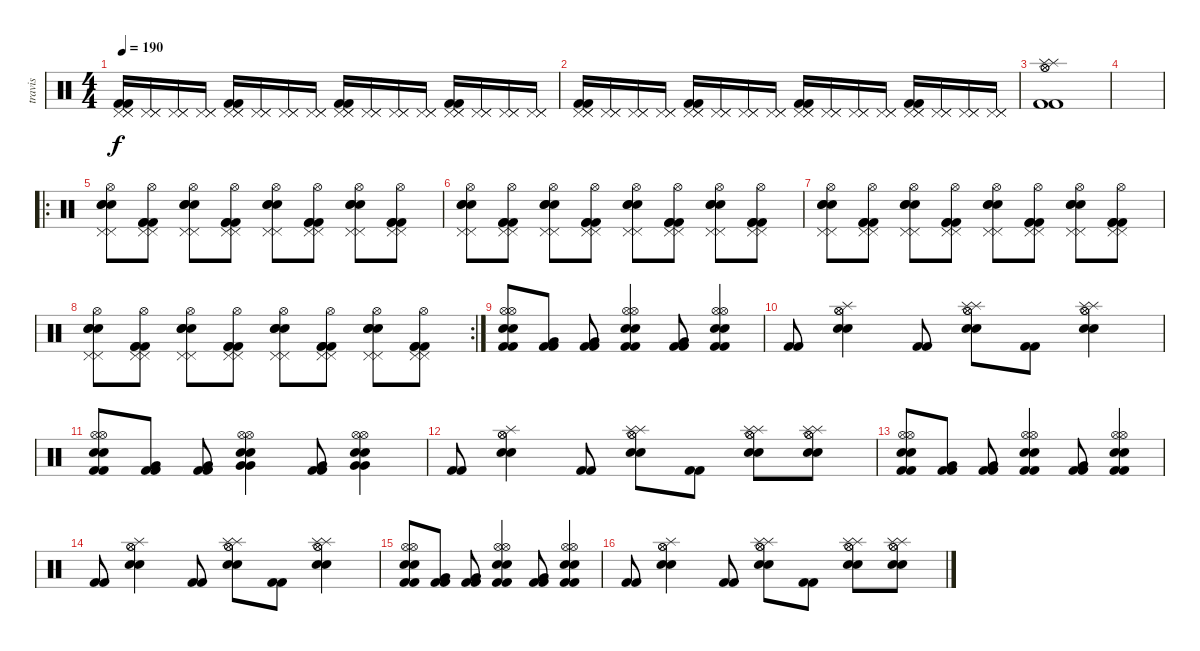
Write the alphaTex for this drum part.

\track ("travis" "travis") {instrument percussion}
\staff {score}
\articulation defaults
\ts (4 4)
\tempo 190
\clef neutral
\ks c
("Pedal Hi-Hat (hit)" "Pedal Hi-Hat (hit)" "Pedal Hi-Hat (hit)" "Kick (hit) 2" "Kick (hit) 2").16{dy f} ("Pedal Hi-Hat (hit)" "Pedal Hi-Hat (hit)" "Pedal Hi-Hat (hit)").16 ("Pedal Hi-Hat (hit)" "Pedal Hi-Hat (hit)" "Pedal Hi-Hat (hit)").16 ("Pedal Hi-Hat (hit)" "Pedal Hi-Hat (hit)" "Pedal Hi-Hat (hit)").16 ("Pedal Hi-Hat (hit)" "Pedal Hi-Hat (hit)" "Pedal Hi-Hat (hit)" "Kick (hit) 2" "Kick (hit) 2").16 ("Pedal Hi-Hat (hit)" "Pedal Hi-Hat (hit)" "Pedal Hi-Hat (hit)").16 ("Pedal Hi-Hat (hit)" "Pedal Hi-Hat (hit)" "Pedal Hi-Hat (hit)").16 ("Pedal Hi-Hat (hit)" "Pedal Hi-Hat (hit)" "Pedal Hi-Hat (hit)").16 ("Pedal Hi-Hat (hit)" "Pedal Hi-Hat (hit)" "Pedal Hi-Hat (hit)" "Kick (hit) 2" "Kick (hit) 2").16 ("Pedal Hi-Hat (hit)" "Pedal Hi-Hat (hit)" "Pedal Hi-Hat (hit)").16 ("Pedal Hi-Hat (hit)" "Pedal Hi-Hat (hit)" "Pedal Hi-Hat (hit)").16 ("Pedal Hi-Hat (hit)" "Pedal Hi-Hat (hit)" "Pedal Hi-Hat (hit)").16 ("Pedal Hi-Hat (hit)" "Pedal Hi-Hat (hit)" "Pedal Hi-Hat (hit)" "Kick (hit) 2" "Kick (hit) 2").16 ("Pedal Hi-Hat (hit)" "Pedal Hi-Hat (hit)" "Pedal Hi-Hat (hit)").16 ("Pedal Hi-Hat (hit)" "Pedal Hi-Hat (hit)" "Pedal Hi-Hat (hit)").16 ("Pedal Hi-Hat (hit)" "Pedal Hi-Hat (hit)" "Pedal Hi-Hat (hit)").16 |
("Pedal Hi-Hat (hit)" "Pedal Hi-Hat (hit)" "Pedal Hi-Hat (hit)" "Kick (hit) 2" "Kick (hit) 2").16 ("Pedal Hi-Hat (hit)" "Pedal Hi-Hat (hit)" "Pedal Hi-Hat (hit)").16 ("Pedal Hi-Hat (hit)" "Pedal Hi-Hat (hit)" "Pedal Hi-Hat (hit)").16 ("Pedal Hi-Hat (hit)" "Pedal Hi-Hat (hit)" "Pedal Hi-Hat (hit)").16 ("Pedal Hi-Hat (hit)" "Pedal Hi-Hat (hit)" "Pedal Hi-Hat (hit)" "Kick (hit) 2" "Kick (hit) 2").16 ("Pedal Hi-Hat (hit)" "Pedal Hi-Hat (hit)" "Pedal Hi-Hat (hit)").16 ("Pedal Hi-Hat (hit)" "Pedal Hi-Hat (hit)" "Pedal Hi-Hat (hit)").16 ("Pedal Hi-Hat (hit)" "Pedal Hi-Hat (hit)" "Pedal Hi-Hat (hit)").16 ("Pedal Hi-Hat (hit)" "Pedal Hi-Hat (hit)" "Pedal Hi-Hat (hit)" "Kick (hit) 2" "Kick (hit) 2").16 ("Pedal Hi-Hat (hit)" "Pedal Hi-Hat (hit)" "Pedal Hi-Hat (hit)").16 ("Pedal Hi-Hat (hit)" "Pedal Hi-Hat (hit)" "Pedal Hi-Hat (hit)").16 ("Pedal Hi-Hat (hit)" "Pedal Hi-Hat (hit)" "Pedal Hi-Hat (hit)").16 ("Pedal Hi-Hat (hit)" "Pedal Hi-Hat (hit)" "Pedal Hi-Hat (hit)" "Kick (hit) 2" "Kick (hit) 2").16 ("Pedal Hi-Hat (hit)" "Pedal Hi-Hat (hit)" "Pedal Hi-Hat (hit)").16 ("Pedal Hi-Hat (hit)" "Pedal Hi-Hat (hit)" "Pedal Hi-Hat (hit)").16 ("Pedal Hi-Hat (hit)" "Pedal Hi-Hat (hit)" "Pedal Hi-Hat (hit)").16 |
("Hi-Hat (open)" "Hi-Hat (open)" "Kick (hit) 2" "Kick (hit) 2" "Splash (hit)" "Splash (hit)").1 |
|
\ro
("Snare (hit) 2" "Snare (hit) 2" "Snare (hit) 2" "Pedal Hi-Hat (hit)" "Hi-Hat (open)" "Pedal Hi-Hat (hit)").8 ("Kick (hit) 2" "Kick (hit) 2" "Kick (hit) 2" "Pedal Hi-Hat (hit)" "Hi-Hat (open)" "Pedal Hi-Hat (hit)").8 ("Snare (hit) 2" "Snare (hit) 2" "Snare (hit) 2" "Pedal Hi-Hat (hit)" "Hi-Hat (open)" "Pedal Hi-Hat (hit)").8 ("Kick (hit) 2" "Kick (hit) 2" "Kick (hit) 2" "Pedal Hi-Hat (hit)" "Hi-Hat (open)" "Pedal Hi-Hat (hit)").8 ("Snare (hit) 2" "Snare (hit) 2" "Snare (hit) 2" "Pedal Hi-Hat (hit)" "Hi-Hat (open)" "Pedal Hi-Hat (hit)").8 ("Kick (hit) 2" "Kick (hit) 2" "Kick (hit) 2" "Pedal Hi-Hat (hit)" "Hi-Hat (open)" "Pedal Hi-Hat (hit)").8 ("Snare (hit) 2" "Snare (hit) 2" "Snare (hit) 2" "Pedal Hi-Hat (hit)" "Hi-Hat (open)" "Pedal Hi-Hat (hit)").8 ("Kick (hit) 2" "Kick (hit) 2" "Kick (hit) 2" "Pedal Hi-Hat (hit)" "Hi-Hat (open)" "Pedal Hi-Hat (hit)").8 |
("Snare (hit) 2" "Snare (hit) 2" "Snare (hit) 2" "Pedal Hi-Hat (hit)" "Hi-Hat (open)" "Pedal Hi-Hat (hit)").8 ("Kick (hit) 2" "Kick (hit) 2" "Kick (hit) 2" "Pedal Hi-Hat (hit)" "Hi-Hat (open)" "Pedal Hi-Hat (hit)").8 ("Snare (hit) 2" "Snare (hit) 2" "Snare (hit) 2" "Pedal Hi-Hat (hit)" "Hi-Hat (open)" "Pedal Hi-Hat (hit)").8 ("Kick (hit) 2" "Kick (hit) 2" "Kick (hit) 2" "Pedal Hi-Hat (hit)" "Hi-Hat (open)" "Pedal Hi-Hat (hit)").8 ("Snare (hit) 2" "Snare (hit) 2" "Snare (hit) 2" "Pedal Hi-Hat (hit)" "Hi-Hat (open)" "Pedal Hi-Hat (hit)").8 ("Kick (hit) 2" "Kick (hit) 2" "Kick (hit) 2" "Pedal Hi-Hat (hit)" "Hi-Hat (open)" "Pedal Hi-Hat (hit)").8 ("Snare (hit) 2" "Snare (hit) 2" "Snare (hit) 2" "Pedal Hi-Hat (hit)" "Hi-Hat (open)" "Pedal Hi-Hat (hit)").8 ("Kick (hit) 2" "Kick (hit) 2" "Kick (hit) 2" "Pedal Hi-Hat (hit)" "Hi-Hat (open)" "Pedal Hi-Hat (hit)").8 |
("Snare (hit) 2" "Snare (hit) 2" "Snare (hit) 2" "Pedal Hi-Hat (hit)" "Hi-Hat (open)" "Pedal Hi-Hat (hit)").8 ("Kick (hit) 2" "Kick (hit) 2" "Kick (hit) 2" "Pedal Hi-Hat (hit)" "Hi-Hat (open)" "Pedal Hi-Hat (hit)").8 ("Snare (hit) 2" "Snare (hit) 2" "Snare (hit) 2" "Pedal Hi-Hat (hit)" "Hi-Hat (open)" "Pedal Hi-Hat (hit)").8 ("Kick (hit) 2" "Kick (hit) 2" "Kick (hit) 2" "Pedal Hi-Hat (hit)" "Hi-Hat (open)" "Pedal Hi-Hat (hit)").8 ("Snare (hit) 2" "Snare (hit) 2" "Snare (hit) 2" "Pedal Hi-Hat (hit)" "Hi-Hat (open)" "Pedal Hi-Hat (hit)").8 ("Kick (hit) 2" "Kick (hit) 2" "Kick (hit) 2" "Pedal Hi-Hat (hit)" "Hi-Hat (open)" "Pedal Hi-Hat (hit)").8 ("Snare (hit) 2" "Snare (hit) 2" "Snare (hit) 2" "Pedal Hi-Hat (hit)" "Hi-Hat (open)" "Pedal Hi-Hat (hit)").8 ("Kick (hit) 2" "Kick (hit) 2" "Kick (hit) 2" "Pedal Hi-Hat (hit)" "Hi-Hat (open)" "Pedal Hi-Hat (hit)").8 |
\rc 2
("Snare (hit) 2" "Snare (hit) 2" "Snare (hit) 2" "Pedal Hi-Hat (hit)" "Hi-Hat (open)" "Pedal Hi-Hat (hit)").8 ("Kick (hit) 2" "Kick (hit) 2" "Kick (hit) 2" "Pedal Hi-Hat (hit)" "Hi-Hat (open)" "Pedal Hi-Hat (hit)").8 ("Snare (hit) 2" "Snare (hit) 2" "Snare (hit) 2" "Pedal Hi-Hat (hit)" "Hi-Hat (open)" "Pedal Hi-Hat (hit)").8 ("Kick (hit) 2" "Kick (hit) 2" "Kick (hit) 2" "Pedal Hi-Hat (hit)" "Hi-Hat (open)" "Pedal Hi-Hat (hit)").8 ("Snare (hit) 2" "Snare (hit) 2" "Snare (hit) 2" "Pedal Hi-Hat (hit)" "Hi-Hat (open)" "Pedal Hi-Hat (hit)").8 ("Kick (hit) 2" "Kick (hit) 2" "Kick (hit) 2" "Pedal Hi-Hat (hit)" "Hi-Hat (open)" "Pedal Hi-Hat (hit)").8 ("Snare (hit) 2" "Snare (hit) 2" "Snare (hit) 2" "Pedal Hi-Hat (hit)" "Hi-Hat (open)" "Pedal Hi-Hat (hit)").8 ("Kick (hit) 2" "Kick (hit) 2" "Kick (hit) 2" "Pedal Hi-Hat (hit)" "Hi-Hat (open)" "Pedal Hi-Hat (hit)").8 |
("Kick (hit) 2" "Kick (hit) 2" "Snare (hit) 2" "Snare (hit) 2" "Hi-Hat (open)" "Hi-Hat (open)").8 ("Kick (hit) 2" "Kick (hit) 2" "Very Low Tom (hit)").8 ("Kick (hit) 2" "Kick (hit) 2" "Very Low Tom (hit)").8 ("Kick (hit) 2" "Kick (hit) 2" "Snare (hit) 2" "Snare (hit) 2" "Hi-Hat (open)" "Hi-Hat (open)").4 ("Kick (hit) 2" "Kick (hit) 2" "Very Low Tom (hit)").8 ("Kick (hit) 2" "Kick (hit) 2" "Snare (hit) 2" "Snare (hit) 2" "Hi-Hat (open)" "Hi-Hat (open)").4 |
("Kick (hit) 2" "Kick (hit) 2").8 ("Snare (hit) 2" "Snare (hit) 2" "Hi-Hat (open)" "Hi-Hat (open)" "Splash (hit)").4 ("Kick (hit) 2" "Kick (hit) 2").8 ("Snare (hit) 2" "Snare (hit) 2" "Hi-Hat (open)" "Hi-Hat (open)" "Splash (hit)" "Splash (hit)").8 ("Kick (hit) 2" "Kick (hit) 2").8 ("Snare (hit) 2" "Snare (hit) 2" "Hi-Hat (open)" "Hi-Hat (open)" "Splash (hit)" "Splash (hit)").4 |
("Kick (hit) 2" "Kick (hit) 2" "Snare (hit) 2" "Snare (hit) 2" "Hi-Hat (open)" "Hi-Hat (open)").8 ("Kick (hit) 2" "Kick (hit) 2" "Very Low Tom (hit)").8 ("Kick (hit) 2" "Kick (hit) 2" "Very Low Tom (hit)").8 ("Very Low Tom (hit)" "Very Low Tom (hit)" "Snare (hit) 2" "Snare (hit) 2" "Hi-Hat (open)" "Hi-Hat (open)").4 ("Kick (hit) 2" "Kick (hit) 2" "Very Low Tom (hit)").8 ("Very Low Tom (hit)" "Very Low Tom (hit)" "Snare (hit) 2" "Snare (hit) 2" "Hi-Hat (open)" "Hi-Hat (open)").4 |
("Kick (hit) 2" "Kick (hit) 2").8 ("Snare (hit) 2" "Snare (hit) 2" "Hi-Hat (open)" "Hi-Hat (open)" "Splash (hit)").4 ("Kick (hit) 2" "Kick (hit) 2").8 ("Snare (hit) 2" "Snare (hit) 2" "Hi-Hat (open)" "Hi-Hat (open)" "Splash (hit)" "Splash (hit)").8 ("Kick (hit) 2" "Kick (hit) 2").8 ("Snare (hit) 2" "Snare (hit) 2" "Hi-Hat (open)" "Hi-Hat (open)" "Splash (hit)" "Splash (hit)").8 ("Snare (hit) 2" "Snare (hit) 2" "Hi-Hat (open)" "Hi-Hat (open)" "Splash (hit)" "Splash (hit)").8 |
("Kick (hit) 2" "Kick (hit) 2" "Snare (hit) 2" "Snare (hit) 2" "Hi-Hat (open)" "Hi-Hat (open)").8 ("Kick (hit) 2" "Kick (hit) 2" "Very Low Tom (hit)").8 ("Kick (hit) 2" "Kick (hit) 2" "Very Low Tom (hit)").8 ("Kick (hit) 2" "Kick (hit) 2" "Snare (hit) 2" "Snare (hit) 2" "Hi-Hat (open)" "Hi-Hat (open)").4 ("Kick (hit) 2" "Kick (hit) 2" "Very Low Tom (hit)").8 ("Kick (hit) 2" "Kick (hit) 2" "Snare (hit) 2" "Snare (hit) 2" "Hi-Hat (open)" "Hi-Hat (open)").4 |
("Kick (hit) 2" "Kick (hit) 2").8 ("Snare (hit) 2" "Snare (hit) 2" "Hi-Hat (open)" "Hi-Hat (open)" "Splash (hit)").4 ("Kick (hit) 2" "Kick (hit) 2").8 ("Snare (hit) 2" "Snare (hit) 2" "Hi-Hat (open)" "Hi-Hat (open)" "Splash (hit)" "Splash (hit)").8 ("Kick (hit) 2" "Kick (hit) 2").8 ("Snare (hit) 2" "Snare (hit) 2" "Hi-Hat (open)" "Hi-Hat (open)" "Splash (hit)" "Splash (hit)").4 |
("Kick (hit) 2" "Kick (hit) 2" "Snare (hit) 2" "Snare (hit) 2" "Hi-Hat (open)" "Hi-Hat (open)").8 ("Kick (hit) 2" "Kick (hit) 2" "Very Low Tom (hit)").8 ("Kick (hit) 2" "Kick (hit) 2" "Very Low Tom (hit)").8 ("Kick (hit) 2" "Kick (hit) 2" "Snare (hit) 2" "Snare (hit) 2" "Hi-Hat (open)" "Hi-Hat (open)").4 ("Kick (hit) 2" "Kick (hit) 2" "Very Low Tom (hit)").8 ("Kick (hit) 2" "Kick (hit) 2" "Snare (hit) 2" "Snare (hit) 2" "Hi-Hat (open)" "Hi-Hat (open)").4 |
("Kick (hit) 2" "Kick (hit) 2").8 ("Snare (hit) 2" "Snare (hit) 2" "Hi-Hat (open)" "Hi-Hat (open)" "Splash (hit)").4 ("Kick (hit) 2" "Kick (hit) 2").8 ("Snare (hit) 2" "Snare (hit) 2" "Hi-Hat (open)" "Hi-Hat (open)" "Splash (hit)" "Splash (hit)").8 ("Kick (hit) 2" "Kick (hit) 2").8 ("Snare (hit) 2" "Snare (hit) 2" "Hi-Hat (open)" "Hi-Hat (open)" "Splash (hit)" "Splash (hit)").8 ("Snare (hit) 2" "Snare (hit) 2" "Hi-Hat (open)" "Hi-Hat (open)" "Splash (hit)" "Splash (hit)").8
